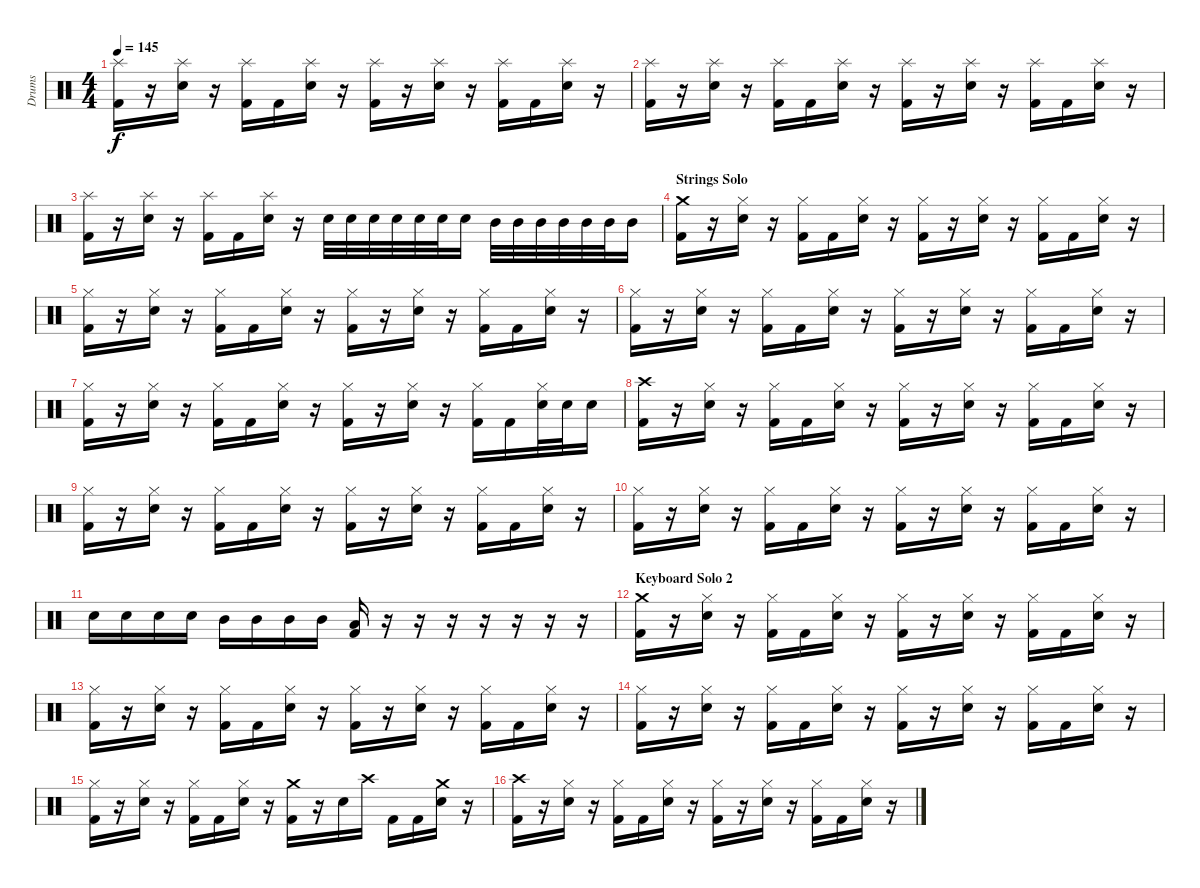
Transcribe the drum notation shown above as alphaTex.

\track ("Drums" "Drums") {instrument percussion}
\staff {score}
\articulation defaults
\ts (4 4)
\tempo 145
\clef neutral
\ks c
("Splash (hit)" "Kick (hit) 2").16{dy f} r.16 ("Splash (hit)" "Snare (hit) 2").16 r.16 ("Splash (hit)" "Kick (hit) 2").16 "Kick (hit) 2".16 ("Splash (hit)" "Snare (hit) 2").16 r.16 ("Splash (hit)" "Kick (hit) 2").16 r.16 ("Splash (hit)" "Snare (hit) 2").16 r.16 ("Splash (hit)" "Kick (hit) 2").16 "Kick (hit) 2".16 ("Splash (hit)" "Snare (hit) 2").16 r.16 |
("Splash (hit)" "Kick (hit) 2").16 r.16 ("Splash (hit)" "Snare (hit) 2").16 r.16 ("Splash (hit)" "Kick (hit) 2").16 "Kick (hit) 2".16 ("Splash (hit)" "Snare (hit) 2").16 r.16 ("Splash (hit)" "Kick (hit) 2").16 r.16 ("Splash (hit)" "Snare (hit) 2").16 r.16 ("Splash (hit)" "Kick (hit) 2").16 "Kick (hit) 2".16 ("Splash (hit)" "Snare (hit) 2").16 r.16 |
("Splash (hit)" "Kick (hit) 2").16 r.16 ("Splash (hit)" "Snare (hit) 2").16 r.16 ("Splash (hit)" "Kick (hit) 2").16 "Kick (hit) 2".16 ("Splash (hit)" "Snare (hit) 2").16 r.16 "Snare (hit) 2".32 "Snare (hit) 2".32 "Snare (hit) 2".32 "Snare (hit) 2".32 "Snare (hit) 2".32 "Snare (hit) 2".32 "Snare (hit) 2".16 "Mid Tom (hit)".32 "Mid Tom (hit)".32 "Mid Tom (hit)".32 "Mid Tom (hit)".32 "Mid Tom (hit)".32 "Mid Tom (hit)".32 "Mid Tom (hit)".16 |
\section ("" "Strings Solo")
("Crash medium (hit)" "Kick (hit) 2").16 r.16 ("Hi-Hat (closed)" "Snare (hit) 2").16 r.16 ("Hi-Hat (closed)" "Kick (hit) 2").16 "Kick (hit) 2".16 ("Hi-Hat (closed)" "Snare (hit) 2").16 r.16 ("Hi-Hat (closed)" "Kick (hit) 2").16 r.16 ("Hi-Hat (closed)" "Snare (hit) 2").16 r.16 ("Hi-Hat (closed)" "Kick (hit) 2").16 "Kick (hit) 2".16 ("Hi-Hat (closed)" "Snare (hit) 2").16 r.16 |
("Hi-Hat (closed)" "Kick (hit) 2").16 r.16 ("Hi-Hat (closed)" "Snare (hit) 2").16 r.16 ("Hi-Hat (closed)" "Kick (hit) 2").16 "Kick (hit) 2".16 ("Hi-Hat (closed)" "Snare (hit) 2").16 r.16 ("Hi-Hat (closed)" "Kick (hit) 2").16 r.16 ("Hi-Hat (closed)" "Snare (hit) 2").16 r.16 ("Hi-Hat (closed)" "Kick (hit) 2").16 "Kick (hit) 2".16 ("Hi-Hat (closed)" "Snare (hit) 2").16 r.16 |
("Hi-Hat (closed)" "Kick (hit) 2").16 r.16 ("Hi-Hat (closed)" "Snare (hit) 2").16 r.16 ("Hi-Hat (closed)" "Kick (hit) 2").16 "Kick (hit) 2".16 ("Hi-Hat (closed)" "Snare (hit) 2").16 r.16 ("Hi-Hat (closed)" "Kick (hit) 2").16 r.16 ("Hi-Hat (closed)" "Snare (hit) 2").16 r.16 ("Hi-Hat (closed)" "Kick (hit) 2").16 "Kick (hit) 2".16 ("Hi-Hat (closed)" "Snare (hit) 2").16 r.16 |
("Hi-Hat (closed)" "Kick (hit) 2").16 r.16 ("Hi-Hat (closed)" "Snare (hit) 2").16 r.16 ("Hi-Hat (closed)" "Kick (hit) 2").16 "Kick (hit) 2".16 ("Hi-Hat (closed)" "Snare (hit) 2").16 r.16 ("Hi-Hat (closed)" "Kick (hit) 2").16 r.16 ("Hi-Hat (closed)" "Snare (hit) 2").16 r.16 ("Hi-Hat (closed)" "Kick (hit) 2").16 "Kick (hit) 2".16 ("Hi-Hat (closed)" "Snare (hit) 2").32 "Snare (hit) 2".32 "Snare (hit) 2".16 |
("Crash high (hit)" "Kick (hit) 2").16 r.16 ("Hi-Hat (closed)" "Snare (hit) 2").16 r.16 ("Hi-Hat (closed)" "Kick (hit) 2").16 "Kick (hit) 2".16 ("Hi-Hat (closed)" "Snare (hit) 2").16 r.16 ("Hi-Hat (closed)" "Kick (hit) 2").16 r.16 ("Hi-Hat (closed)" "Snare (hit) 2").16 r.16 ("Hi-Hat (closed)" "Kick (hit) 2").16 "Kick (hit) 2".16 ("Hi-Hat (closed)" "Snare (hit) 2").16 r.16 |
("Hi-Hat (closed)" "Kick (hit) 2").16 r.16 ("Hi-Hat (closed)" "Snare (hit) 2").16 r.16 ("Hi-Hat (closed)" "Kick (hit) 2").16 "Kick (hit) 2".16 ("Hi-Hat (closed)" "Snare (hit) 2").16 r.16 ("Hi-Hat (closed)" "Kick (hit) 2").16 r.16 ("Hi-Hat (closed)" "Snare (hit) 2").16 r.16 ("Hi-Hat (closed)" "Kick (hit) 2").16 "Kick (hit) 2".16 ("Hi-Hat (closed)" "Snare (hit) 2").16 r.16 |
("Hi-Hat (closed)" "Kick (hit) 2").16 r.16 ("Hi-Hat (closed)" "Snare (hit) 2").16 r.16 ("Hi-Hat (closed)" "Kick (hit) 2").16 "Kick (hit) 2".16 ("Hi-Hat (closed)" "Snare (hit) 2").16 r.16 ("Hi-Hat (closed)" "Kick (hit) 2").16 r.16 ("Hi-Hat (closed)" "Snare (hit) 2").16 r.16 ("Hi-Hat (closed)" "Kick (hit) 2").16 "Kick (hit) 2".16 ("Hi-Hat (closed)" "Snare (hit) 2").16 r.16 |
"Snare (hit) 2".16 "Snare (hit) 2".16 "Snare (hit) 2".16 "Snare (hit) 2".16 "Mid Tom (hit)".16 "Mid Tom (hit)".16 "Mid Tom (hit)".16 "Mid Tom (hit)".16 ("Low Tom (hit)" "Kick (hit) 2").16 r.16 r.16 r.16 r.16 r.16 r.16 r.16 |
\section ("" "Keyboard Solo 2")
("Crash medium (hit)" "Kick (hit) 2").16 r.16 ("Hi-Hat (closed)" "Snare (hit) 2").16 r.16 ("Hi-Hat (closed)" "Kick (hit) 2").16 "Kick (hit) 2".16 ("Hi-Hat (closed)" "Snare (hit) 2").16 r.16 ("Hi-Hat (closed)" "Kick (hit) 2").16 r.16 ("Hi-Hat (closed)" "Snare (hit) 2").16 r.16 ("Hi-Hat (closed)" "Kick (hit) 2").16 "Kick (hit) 2".16 ("Hi-Hat (closed)" "Snare (hit) 2").16 r.16 |
("Hi-Hat (closed)" "Kick (hit) 2").16 r.16 ("Hi-Hat (closed)" "Snare (hit) 2").16 r.16 ("Hi-Hat (closed)" "Kick (hit) 2").16 "Kick (hit) 2".16 ("Hi-Hat (closed)" "Snare (hit) 2").16 r.16 ("Hi-Hat (closed)" "Kick (hit) 2").16 r.16 ("Hi-Hat (closed)" "Snare (hit) 2").16 r.16 ("Hi-Hat (closed)" "Kick (hit) 2").16 "Kick (hit) 2".16 ("Hi-Hat (closed)" "Snare (hit) 2").16 r.16 |
("Hi-Hat (closed)" "Kick (hit) 2").16 r.16 ("Hi-Hat (closed)" "Snare (hit) 2").16 r.16 ("Hi-Hat (closed)" "Kick (hit) 2").16 "Kick (hit) 2".16 ("Hi-Hat (closed)" "Snare (hit) 2").16 r.16 ("Hi-Hat (closed)" "Kick (hit) 2").16 r.16 ("Hi-Hat (closed)" "Snare (hit) 2").16 r.16 ("Hi-Hat (closed)" "Kick (hit) 2").16 "Kick (hit) 2".16 ("Hi-Hat (closed)" "Snare (hit) 2").16 r.16 |
("Hi-Hat (closed)" "Kick (hit) 2").16 r.16 ("Hi-Hat (closed)" "Snare (hit) 2").16 r.16 ("Hi-Hat (closed)" "Kick (hit) 2").16 "Kick (hit) 2".16 ("Hi-Hat (closed)" "Snare (hit) 2").16 r.16 ("Crash medium (hit)" "Kick (hit) 2").16 r.16 "Snare (hit) 2".16 "Crash high (hit)".16 "Kick (hit) 2".16 "Kick (hit) 2".16 ("Crash medium (hit)" "Snare (hit) 2").16 r.16 |
("Crash high (hit)" "Kick (hit) 2").16 r.16 ("Hi-Hat (closed)" "Snare (hit) 2").16 r.16 ("Hi-Hat (closed)" "Kick (hit) 2").16 "Kick (hit) 2".16 ("Hi-Hat (closed)" "Snare (hit) 2").16 r.16 ("Hi-Hat (closed)" "Kick (hit) 2").16 r.16 ("Hi-Hat (closed)" "Snare (hit) 2").16 r.16 ("Hi-Hat (closed)" "Kick (hit) 2").16 "Kick (hit) 2".16 ("Hi-Hat (closed)" "Snare (hit) 2").16 r.16
